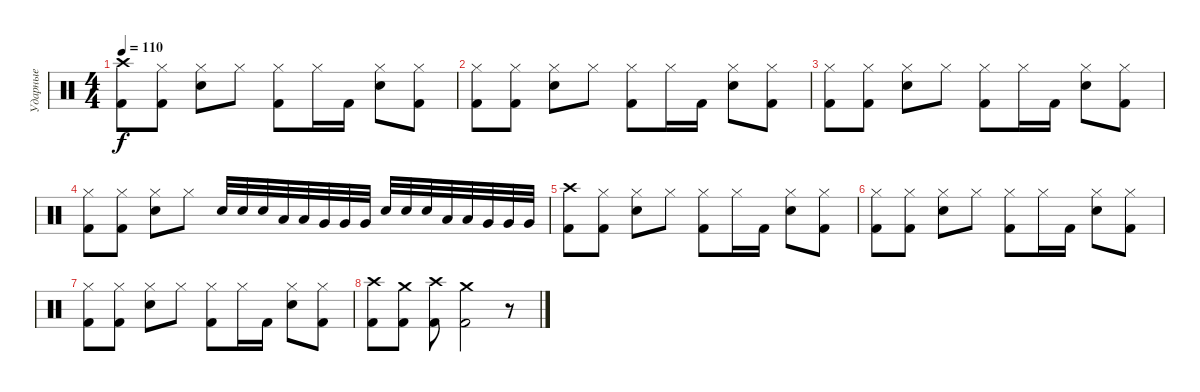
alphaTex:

\track ("Ударные" "Ударные") {instrument percussion}
\staff {score}
\articulation defaults
\ts (4 4)
\tempo 110
\clef neutral
\ks c
("Kick (hit) 2" "Crash high (hit)").8{dy f} ("Kick (hit) 2" "Hi-Hat (closed)").8 ("Snare (hit) 2" "Hi-Hat (closed)").8 "Hi-Hat (closed)".8 ("Kick (hit) 2" "Hi-Hat (closed)").8 "Hi-Hat (closed)".16 "Kick (hit) 2".16 ("Snare (hit) 2" "Hi-Hat (closed)").8 ("Kick (hit) 2" "Hi-Hat (closed)").8 |
("Kick (hit) 2" "Hi-Hat (closed)").8 ("Kick (hit) 2" "Hi-Hat (closed)").8 ("Snare (hit) 2" "Hi-Hat (closed)").8 "Hi-Hat (closed)".8 ("Kick (hit) 2" "Hi-Hat (closed)").8 "Hi-Hat (closed)".16 "Kick (hit) 2".16 ("Snare (hit) 2" "Hi-Hat (closed)").8 ("Kick (hit) 2" "Hi-Hat (closed)").8 |
("Kick (hit) 2" "Hi-Hat (closed)").8 ("Kick (hit) 2" "Hi-Hat (closed)").8 ("Snare (hit) 2" "Hi-Hat (closed)").8 "Hi-Hat (closed)".8 ("Kick (hit) 2" "Hi-Hat (closed)").8 "Hi-Hat (closed)".16 "Kick (hit) 2".16 ("Snare (hit) 2" "Hi-Hat (closed)").8 ("Kick (hit) 2" "Hi-Hat (closed)").8 |
("Kick (hit) 2" "Hi-Hat (closed)").8 ("Kick (hit) 2" "Hi-Hat (closed)").8 ("Snare (hit) 2" "Hi-Hat (closed)").8 "Hi-Hat (closed)".8 "Snare (hit) 2".32 "Snare (hit) 2".32 "Snare (hit) 2".32 "Low Tom (hit)".32 "Low Tom (hit)".32 "Very Low Tom (hit)".32 "Very Low Tom (hit)".32 "Very Low Tom (hit)".32 "Snare (hit) 2".32 "Snare (hit) 2".32 "Snare (hit) 2".32 "Low Tom (hit)".32 "Low Tom (hit)".32 "Very Low Tom (hit)".32 "Very Low Tom (hit)".32 "Very Low Tom (hit)".32 |
("Kick (hit) 2" "Crash high (hit)").8 ("Kick (hit) 2" "Hi-Hat (closed)").8 ("Snare (hit) 2" "Hi-Hat (closed)").8 "Hi-Hat (closed)".8 ("Kick (hit) 2" "Hi-Hat (closed)").8 "Hi-Hat (closed)".16 "Kick (hit) 2".16 ("Snare (hit) 2" "Hi-Hat (closed)").8 ("Kick (hit) 2" "Hi-Hat (closed)").8 |
("Kick (hit) 2" "Hi-Hat (closed)").8 ("Kick (hit) 2" "Hi-Hat (closed)").8 ("Snare (hit) 2" "Hi-Hat (closed)").8 "Hi-Hat (closed)".8 ("Kick (hit) 2" "Hi-Hat (closed)").8 "Hi-Hat (closed)".16 "Kick (hit) 2".16 ("Snare (hit) 2" "Hi-Hat (closed)").8 ("Kick (hit) 2" "Hi-Hat (closed)").8 |
("Kick (hit) 2" "Hi-Hat (closed)").8 ("Kick (hit) 2" "Hi-Hat (closed)").8 ("Snare (hit) 2" "Hi-Hat (closed)").8 "Hi-Hat (closed)".8 ("Kick (hit) 2" "Hi-Hat (closed)").8 "Hi-Hat (closed)".16 "Kick (hit) 2".16 ("Snare (hit) 2" "Hi-Hat (closed)").8 ("Kick (hit) 2" "Hi-Hat (closed)").8 |
("Crash high (hit)" "Kick (hit) 2").8 ("Crash medium (hit)" "Kick (hit) 2").8 ("Crash high (hit)" "Kick (hit) 2").8 ("Crash medium (hit)" "Kick (hit) 2").2 r.8
